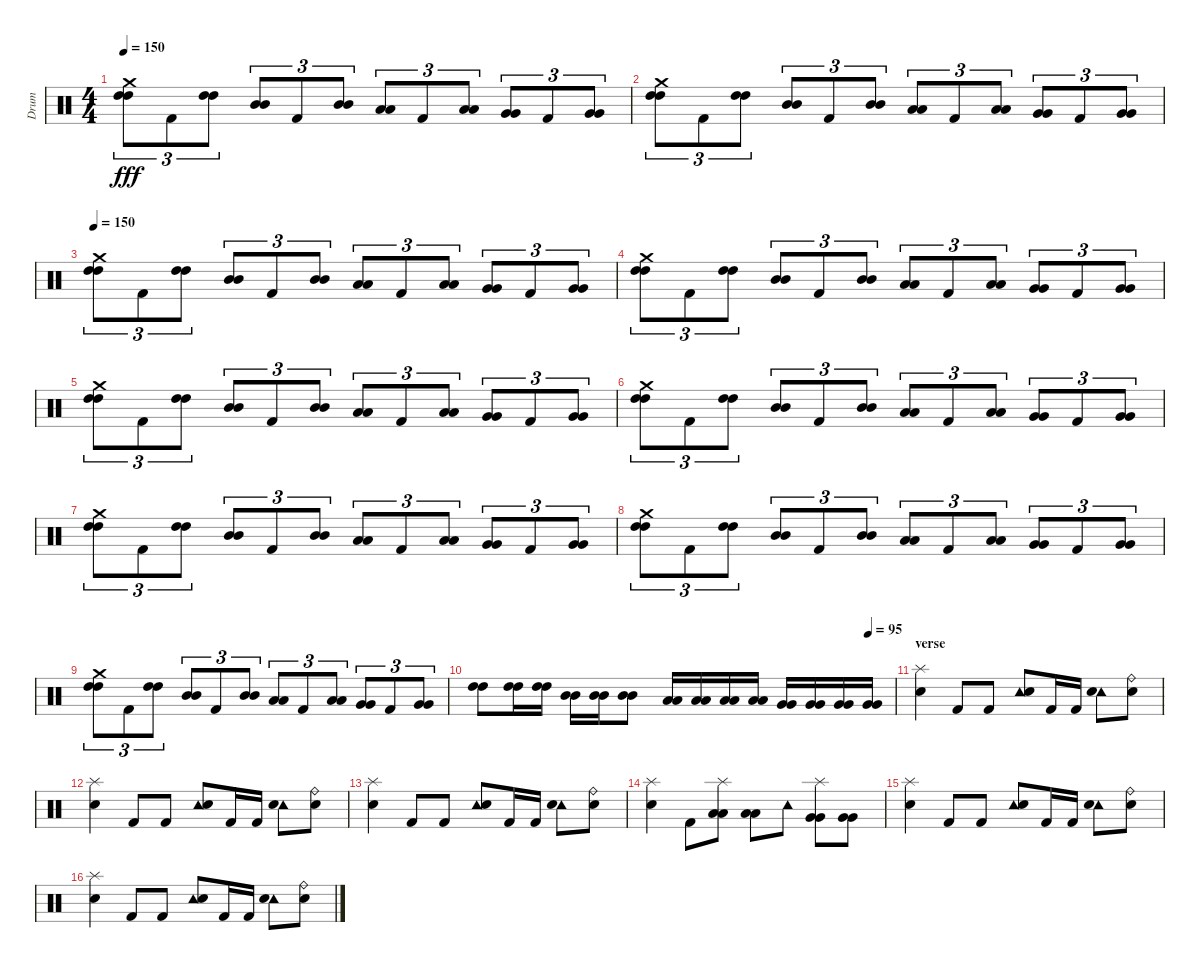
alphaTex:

\track ("Drum" "Drum") {instrument percussion}
\staff {score}
\articulation defaults
\ts (4 4)
\tempo 150
\clef neutral
\ks c
("Crash medium (hit)" "High Tom (hit)" "High Tom (hit)").8{tu (3 2) dy fff} "Kick (hit) 2".8{tu (3 2)} ("High Tom (hit)" "High Tom (hit)").8{tu (3 2)} ("Mid Tom (hit)" "Mid Tom (hit)").8{tu (3 2)} "Kick (hit) 2".8{tu (3 2)} ("Mid Tom (hit)" "Mid Tom (hit)").8{tu (3 2)} ("Low Tom (hit)" "Low Tom (hit)").8{tu (3 2)} "Kick (hit) 2".8{tu (3 2)} ("Low Tom (hit)" "Low Tom (hit)").8{tu (3 2)} ("Very Low Tom (hit)" "Very Low Tom (hit)").8{tu (3 2)} "Kick (hit) 2".8{tu (3 2)} ("Very Low Tom (hit)" "Very Low Tom (hit)").8{tu (3 2)} |
("Crash medium (hit)" "High Tom (hit)" "High Tom (hit)").8{tu (3 2)} "Kick (hit) 2".8{tu (3 2)} ("High Tom (hit)" "High Tom (hit)").8{tu (3 2)} ("Mid Tom (hit)" "Mid Tom (hit)").8{tu (3 2)} "Kick (hit) 2".8{tu (3 2)} ("Mid Tom (hit)" "Mid Tom (hit)").8{tu (3 2)} ("Low Tom (hit)" "Low Tom (hit)").8{tu (3 2)} "Kick (hit) 2".8{tu (3 2)} ("Low Tom (hit)" "Low Tom (hit)").8{tu (3 2)} ("Very Low Tom (hit)" "Very Low Tom (hit)").8{tu (3 2)} "Kick (hit) 2".8{tu (3 2)} ("Very Low Tom (hit)" "Very Low Tom (hit)").8{tu (3 2)} |
\tempo 150
("Crash medium (hit)" "High Tom (hit)" "High Tom (hit)").8{tu (3 2)} "Kick (hit) 2".8{tu (3 2)} ("High Tom (hit)" "High Tom (hit)").8{tu (3 2)} ("Mid Tom (hit)" "Mid Tom (hit)").8{tu (3 2)} "Kick (hit) 2".8{tu (3 2)} ("Mid Tom (hit)" "Mid Tom (hit)").8{tu (3 2)} ("Low Tom (hit)" "Low Tom (hit)").8{tu (3 2)} "Kick (hit) 2".8{tu (3 2)} ("Low Tom (hit)" "Low Tom (hit)").8{tu (3 2)} ("Very Low Tom (hit)" "Very Low Tom (hit)").8{tu (3 2)} "Kick (hit) 2".8{tu (3 2)} ("Very Low Tom (hit)" "Very Low Tom (hit)").8{tu (3 2)} |
("Crash medium (hit)" "High Tom (hit)" "High Tom (hit)").8{tu (3 2)} "Kick (hit) 2".8{tu (3 2)} ("High Tom (hit)" "High Tom (hit)").8{tu (3 2)} ("Mid Tom (hit)" "Mid Tom (hit)").8{tu (3 2)} "Kick (hit) 2".8{tu (3 2)} ("Mid Tom (hit)" "Mid Tom (hit)").8{tu (3 2)} ("Low Tom (hit)" "Low Tom (hit)").8{tu (3 2)} "Kick (hit) 2".8{tu (3 2)} ("Low Tom (hit)" "Low Tom (hit)").8{tu (3 2)} ("Very Low Tom (hit)" "Very Low Tom (hit)").8{tu (3 2)} "Kick (hit) 2".8{tu (3 2)} ("Very Low Tom (hit)" "Very Low Tom (hit)").8{tu (3 2)} |
("Crash medium (hit)" "High Tom (hit)" "High Tom (hit)").8{tu (3 2)} "Kick (hit) 2".8{tu (3 2)} ("High Tom (hit)" "High Tom (hit)").8{tu (3 2)} ("Mid Tom (hit)" "Mid Tom (hit)").8{tu (3 2)} "Kick (hit) 2".8{tu (3 2)} ("Mid Tom (hit)" "Mid Tom (hit)").8{tu (3 2)} ("Low Tom (hit)" "Low Tom (hit)").8{tu (3 2)} "Kick (hit) 2".8{tu (3 2)} ("Low Tom (hit)" "Low Tom (hit)").8{tu (3 2)} ("Very Low Tom (hit)" "Very Low Tom (hit)").8{tu (3 2)} "Kick (hit) 2".8{tu (3 2)} ("Very Low Tom (hit)" "Very Low Tom (hit)").8{tu (3 2)} |
("Crash medium (hit)" "High Tom (hit)" "High Tom (hit)").8{tu (3 2)} "Kick (hit) 2".8{tu (3 2)} ("High Tom (hit)" "High Tom (hit)").8{tu (3 2)} ("Mid Tom (hit)" "Mid Tom (hit)").8{tu (3 2)} "Kick (hit) 2".8{tu (3 2)} ("Mid Tom (hit)" "Mid Tom (hit)").8{tu (3 2)} ("Low Tom (hit)" "Low Tom (hit)").8{tu (3 2)} "Kick (hit) 2".8{tu (3 2)} ("Low Tom (hit)" "Low Tom (hit)").8{tu (3 2)} ("Very Low Tom (hit)" "Very Low Tom (hit)").8{tu (3 2)} "Kick (hit) 2".8{tu (3 2)} ("Very Low Tom (hit)" "Very Low Tom (hit)").8{tu (3 2)} |
("Crash medium (hit)" "High Tom (hit)" "High Tom (hit)").8{tu (3 2)} "Kick (hit) 2".8{tu (3 2)} ("High Tom (hit)" "High Tom (hit)").8{tu (3 2)} ("Mid Tom (hit)" "Mid Tom (hit)").8{tu (3 2)} "Kick (hit) 2".8{tu (3 2)} ("Mid Tom (hit)" "Mid Tom (hit)").8{tu (3 2)} ("Low Tom (hit)" "Low Tom (hit)").8{tu (3 2)} "Kick (hit) 2".8{tu (3 2)} ("Low Tom (hit)" "Low Tom (hit)").8{tu (3 2)} ("Very Low Tom (hit)" "Very Low Tom (hit)").8{tu (3 2)} "Kick (hit) 2".8{tu (3 2)} ("Very Low Tom (hit)" "Very Low Tom (hit)").8{tu (3 2)} |
("Crash medium (hit)" "High Tom (hit)" "High Tom (hit)").8{tu (3 2)} "Kick (hit) 2".8{tu (3 2)} ("High Tom (hit)" "High Tom (hit)").8{tu (3 2)} ("Mid Tom (hit)" "Mid Tom (hit)").8{tu (3 2)} "Kick (hit) 2".8{tu (3 2)} ("Mid Tom (hit)" "Mid Tom (hit)").8{tu (3 2)} ("Low Tom (hit)" "Low Tom (hit)").8{tu (3 2)} "Kick (hit) 2".8{tu (3 2)} ("Low Tom (hit)" "Low Tom (hit)").8{tu (3 2)} ("Very Low Tom (hit)" "Very Low Tom (hit)").8{tu (3 2)} "Kick (hit) 2".8{tu (3 2)} ("Very Low Tom (hit)" "Very Low Tom (hit)").8{tu (3 2)} |
("Crash medium (hit)" "High Tom (hit)" "High Tom (hit)").8{tu (3 2)} "Kick (hit) 2".8{tu (3 2)} ("High Tom (hit)" "High Tom (hit)").8{tu (3 2)} ("Mid Tom (hit)" "Mid Tom (hit)").8{tu (3 2)} "Kick (hit) 2".8{tu (3 2)} ("Mid Tom (hit)" "Mid Tom (hit)").8{tu (3 2)} ("Low Tom (hit)" "Low Tom (hit)").8{tu (3 2)} "Kick (hit) 2".8{tu (3 2)} ("Low Tom (hit)" "Low Tom (hit)").8{tu (3 2)} ("Very Low Tom (hit)" "Very Low Tom (hit)").8{tu (3 2)} "Kick (hit) 2".8{tu (3 2)} ("Very Low Tom (hit)" "Very Low Tom (hit)").8{tu (3 2)} |
\tempo (95 0.9375)
("High Tom (hit)" "High Tom (hit)").8 ("High Tom (hit)" "High Tom (hit)").16 ("High Tom (hit)" "High Tom (hit)").16 ("Mid Tom (hit)" "Mid Tom (hit)").16 ("Mid Tom (hit)" "Mid Tom (hit)").16 ("Mid Tom (hit)" "Mid Tom (hit)").8 ("Low Tom (hit)" "Low Tom (hit)").16 ("Low Tom (hit)" "Low Tom (hit)").16 ("Low Tom (hit)" "Low Tom (hit)").16 ("Low Tom (hit)" "Low Tom (hit)").16 ("Very Low Tom (hit)" "Very Low Tom (hit)").16 ("Very Low Tom (hit)" "Very Low Tom (hit)").16 ("Very Low Tom (hit)" "Very Low Tom (hit)").16 ("Very Low Tom (hit)" "Very Low Tom (hit)").16 |
\section ("" "verse")
("Splash (hit)" "Snare (hit) 2").4 "Kick (hit) 2".8 "Kick (hit) 2".8 ("Tambourine (hit)" "Snare (hit) 2").8 "Kick (hit) 2".16 "Kick (hit) 2".16 ("Tambourine (hit)" "Snare (hit) 2").8 ("Snare (hit) 2" "Ride (bell)").8 |
("Splash (hit)" "Snare (hit) 2").4 "Kick (hit) 2".8 "Kick (hit) 2".8 ("Tambourine (hit)" "Snare (hit) 2").8 "Kick (hit) 2".16 "Kick (hit) 2".16 ("Tambourine (hit)" "Snare (hit) 2").8 ("Snare (hit) 2" "Ride (bell)").8 |
("Splash (hit)" "Snare (hit) 2").4 "Kick (hit) 2".8 "Kick (hit) 2".8 ("Tambourine (hit)" "Snare (hit) 2").8 "Kick (hit) 2".16 "Kick (hit) 2".16 ("Tambourine (hit)" "Snare (hit) 2").8 ("Snare (hit) 2" "Ride (bell)").8 |
("Splash (hit)" "Snare (hit) 2").4 "Kick (hit) 2".8 ("Low Tom (hit)" "Low Tom (hit)" "Splash (hit)").8 ("Low Tom (hit)" "Low Tom (hit)").8 "Tambourine (hit)".8 ("Very Low Tom (hit)" "Very Low Tom (hit)" "Splash (hit)").8 ("Very Low Tom (hit)" "Very Low Tom (hit)").8 |
("Splash (hit)" "Snare (hit) 2").4 "Kick (hit) 2".8 "Kick (hit) 2".8 ("Tambourine (hit)" "Snare (hit) 2").8 "Kick (hit) 2".16 "Kick (hit) 2".16 ("Tambourine (hit)" "Snare (hit) 2").8 ("Snare (hit) 2" "Ride (bell)").8 |
("Splash (hit)" "Snare (hit) 2").4 "Kick (hit) 2".8 "Kick (hit) 2".8 ("Tambourine (hit)" "Snare (hit) 2").8 "Kick (hit) 2".16 "Kick (hit) 2".16 ("Tambourine (hit)" "Snare (hit) 2").8 ("Snare (hit) 2" "Ride (bell)").8
